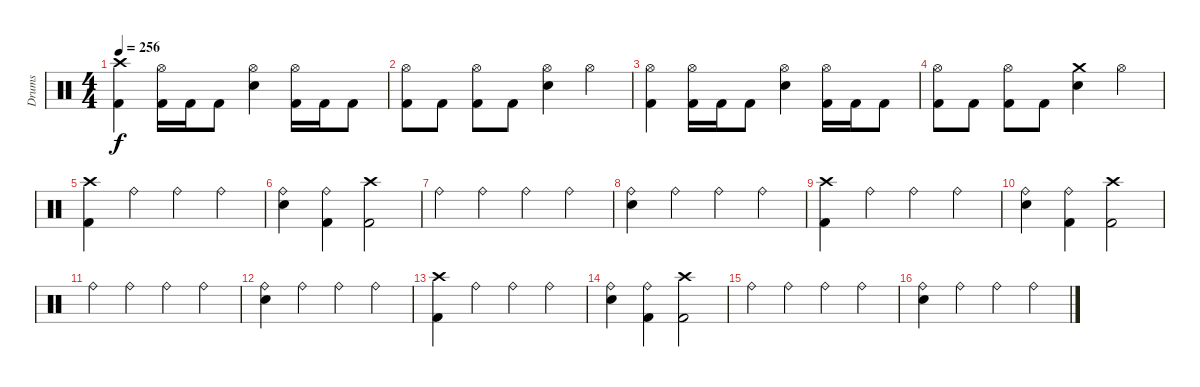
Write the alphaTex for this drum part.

\track ("Drums" "Drums") {instrument percussion}
\staff {score}
\articulation defaults
\ts (4 4)
\tempo 256
\clef neutral
\ks c
("Crash high (hit)" "Kick (hit) 2").4{dy f} ("Hi-Hat (open)" "Kick (hit) 2").16 "Kick (hit) 2".16 "Kick (hit) 2".8 ("Hi-Hat (open)" "Electric Snare (hit)").4 ("Hi-Hat (open)" "Kick (hit) 2").16 "Kick (hit) 2".16 "Kick (hit) 2".8 |
("Hi-Hat (open)" "Kick (hit) 2").8 "Kick (hit) 2".8 ("Hi-Hat (open)" "Kick (hit) 2").8 "Kick (hit) 2".8 ("Hi-Hat (open)" "Electric Snare (hit)").4 "Hi-Hat (open)".4 |
("Hi-Hat (open)" "Kick (hit) 2").4 ("Hi-Hat (open)" "Kick (hit) 2").16 "Kick (hit) 2".16 "Kick (hit) 2".8 ("Hi-Hat (open)" "Electric Snare (hit)").4 ("Hi-Hat (open)" "Kick (hit) 2").16 "Kick (hit) 2".16 "Kick (hit) 2".8 |
("Hi-Hat (open)" "Kick (hit) 2").8 "Kick (hit) 2".8 ("Hi-Hat (open)" "Kick (hit) 2").8 "Kick (hit) 2".8 ("Crash medium (hit)" "Electric Snare (hit)").4 "Hi-Hat (open)".4 |
("Crash high (hit)" "Kick (hit) 2").4 "Ride (bell)".4 "Ride (bell)".4 "Ride (bell)".4 |
("Electric Snare (hit)" "Ride (bell)").4 ("Kick (hit) 2" "Ride (bell)").4 ("Crash high (hit)" "Kick (hit) 2").2 |
"Ride (bell)".4 "Ride (bell)".4 "Ride (bell)".4 "Ride (bell)".4 |
("Electric Snare (hit)" "Ride (bell)").4 "Ride (bell)".4 "Ride (bell)".4 "Ride (bell)".4 |
("Crash high (hit)" "Kick (hit) 2").4 "Ride (bell)".4 "Ride (bell)".4 "Ride (bell)".4 |
("Electric Snare (hit)" "Ride (bell)").4 ("Kick (hit) 2" "Ride (bell)").4 ("Crash high (hit)" "Kick (hit) 2").2 |
"Ride (bell)".4 "Ride (bell)".4 "Ride (bell)".4 "Ride (bell)".4 |
("Electric Snare (hit)" "Ride (bell)").4 "Ride (bell)".4 "Ride (bell)".4 "Ride (bell)".4 |
("Crash high (hit)" "Kick (hit) 2").4 "Ride (bell)".4 "Ride (bell)".4 "Ride (bell)".4 |
("Electric Snare (hit)" "Ride (bell)").4 ("Kick (hit) 2" "Ride (bell)").4 ("Crash high (hit)" "Kick (hit) 2").2 |
"Ride (bell)".4 "Ride (bell)".4 "Ride (bell)".4 "Ride (bell)".4 |
("Electric Snare (hit)" "Ride (bell)").4 "Ride (bell)".4 "Ride (bell)".4 "Ride (bell)".4
